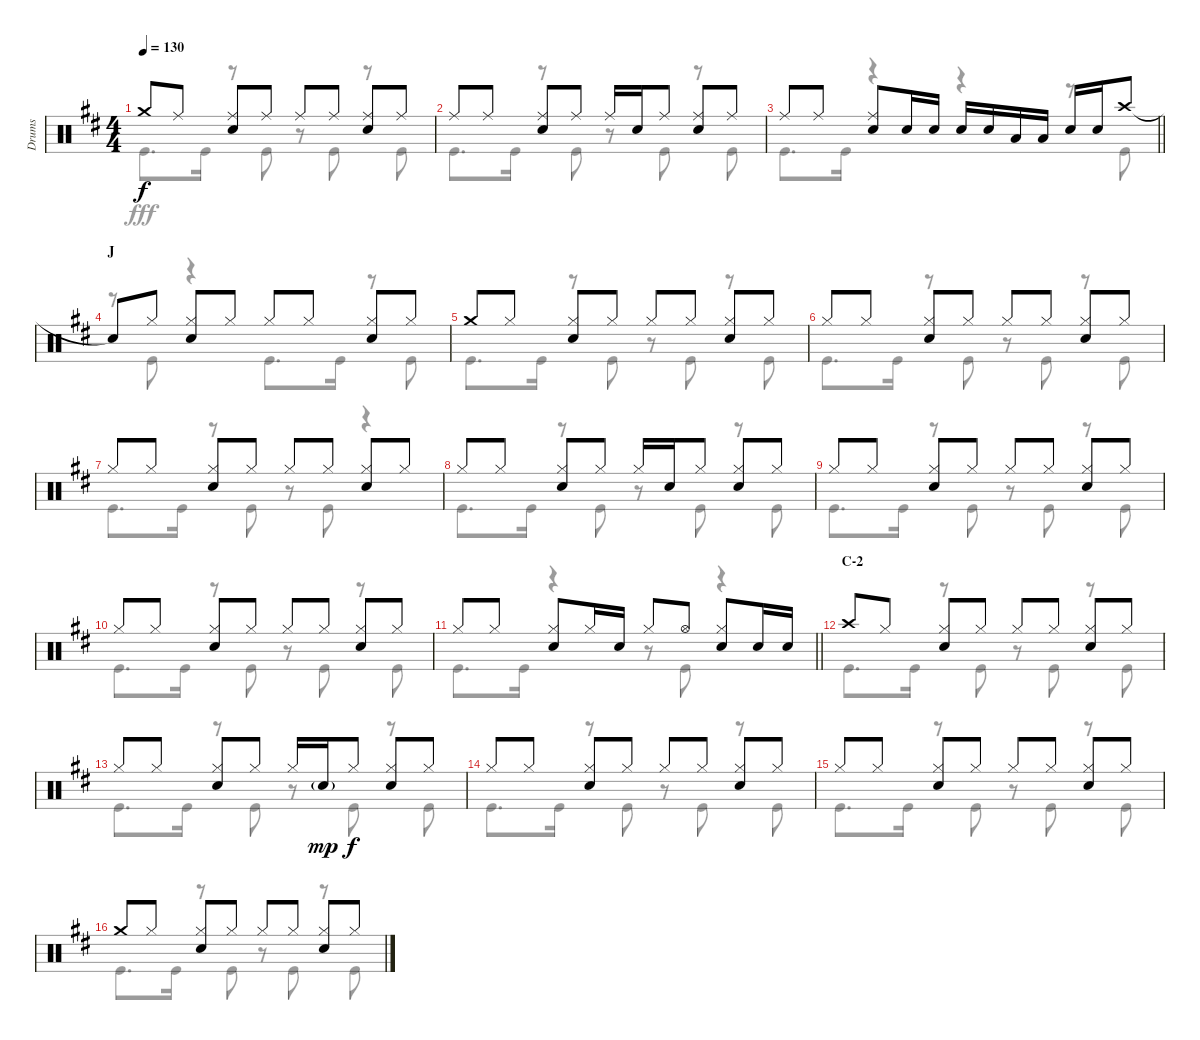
\track ("Drums" "Drums") {instrument percussion}
\staff {score}
\articulation defaults
\voice
\ts (4 4)
\tempo 130
\clef neutral
\ks d "Crash medium (hit)".8{dy f} "Ride (middle)".8
("Ride (middle)" "Snare (hit) 2").8 "Ride (middle)".8 "Ride (middle)".8 "Ride (middle)".8 ("Ride (middle)" "Snare (hit) 2").8 "Ride (middle)".8 |
"Ride (middle)".8 "Ride (middle)".8 ("Ride (middle)" "Snare (hit) 2").8 "Ride (middle)".8 "Ride (middle)".16 "Snare (hit) 2".16 "Ride (middle)".8 ("Ride (middle)" "Snare (hit) 2").8 "Ride (middle)".8 |
\barLineRight lightlight "Ride (middle)".8 "Ride (middle)".8
("Ride (middle)" "Snare (hit) 2").8 "Snare (hit) 2".16 "Snare (hit) 2".16 "Snare (hit) 2".16 "Snare (hit) 2".16 "Low Tom (hit)".16 "Low Tom (hit)".16 "Snare (hit) 2".16 "Snare (hit) 2".16 "Crash high (hit)".8 |
\section ("" "J")
"Snare (hit)"{t}.8 "Hi-Hat (closed)".8 ("Hi-Hat (closed)" "Snare (hit) 2").8 "Hi-Hat (closed)".8 "Hi-Hat (closed)".8 "Hi-Hat (closed)".8 ("Hi-Hat (closed)" "Snare (hit) 2").8 "Hi-Hat (closed)".8 |
"Crash medium (hit)".8 "Hi-Hat (closed)".8 ("Hi-Hat (closed)" "Snare (hit) 2").8 "Hi-Hat (closed)".8 "Hi-Hat (closed)".8 "Hi-Hat (closed)".8 ("Hi-Hat (closed)" "Snare (hit) 2").8 "Hi-Hat (closed)".8 |
"Hi-Hat (closed)".8 "Hi-Hat (closed)".8 ("Hi-Hat (closed)" "Snare (hit) 2").8 "Hi-Hat (closed)".8 "Hi-Hat (closed)".8 "Hi-Hat (closed)".8 ("Hi-Hat (closed)" "Snare (hit) 2").8 "Hi-Hat (closed)".8 |
"Hi-Hat (closed)".8 "Hi-Hat (closed)".8 ("Hi-Hat (closed)" "Snare (hit) 2").8 "Hi-Hat (closed)".8 "Hi-Hat (closed)".8 "Hi-Hat (closed)".8 ("Hi-Hat (closed)" "Snare (hit) 2").8 "Hi-Hat (closed)".8 |
"Hi-Hat (closed)".8 "Hi-Hat (closed)".8 ("Hi-Hat (closed)" "Snare (hit) 2").8 "Hi-Hat (closed)".8 "Hi-Hat (closed)".16 "Snare (hit) 2".16 "Hi-Hat (closed)".8 ("Hi-Hat (closed)" "Snare (hit) 2").8 "Hi-Hat (closed)".8 |
"Hi-Hat (closed)".8 "Hi-Hat (closed)".8 ("Hi-Hat (closed)" "Snare (hit) 2").8 "Hi-Hat (closed)".8 "Hi-Hat (closed)".8 "Hi-Hat (closed)".8 ("Hi-Hat (closed)" "Snare (hit) 2").8 "Hi-Hat (closed)".8 |
"Hi-Hat (closed)".8 "Hi-Hat (closed)".8 ("Hi-Hat (closed)" "Snare (hit) 2").8 "Hi-Hat (closed)".8 "Hi-Hat (closed)".8 "Hi-Hat (closed)".8 ("Hi-Hat (closed)" "Snare (hit) 2").8 "Hi-Hat (closed)".8 |
\barLineRight lightlight "Hi-Hat (closed)".8 "Hi-Hat (closed)".8
("Hi-Hat (closed)" "Snare (hit) 2").8 "Hi-Hat (closed)".16 "Snare (hit) 2".16 "Hi-Hat (closed)".8 "Hi-Hat (open)".8 ("Hi-Hat (closed)" "Snare (hit) 2").8 "Snare (hit) 2".16 "Snare (hit) 2".16 |
\section ("" "C-2")
"Crash high (hit)".8 "Hi-Hat (closed)".8 ("Hi-Hat (closed)" "Snare (hit) 2").8 "Hi-Hat (closed)".8 "Hi-Hat (closed)".8 "Hi-Hat (closed)".8 ("Hi-Hat (closed)" "Snare (hit) 2").8 "Hi-Hat (closed)".8 |
"Hi-Hat (closed)".8 "Hi-Hat (closed)".8 ("Hi-Hat (closed)" "Snare (hit) 2").8 "Hi-Hat (closed)".8 "Hi-Hat (closed)".16 "Snare (hit) 2"{g}.16{dy mp} "Hi-Hat (closed)".8{dy f} ("Hi-Hat (closed)" "Snare (hit) 2").8 "Hi-Hat (closed)".8 |
"Hi-Hat (closed)".8 "Hi-Hat (closed)".8 ("Hi-Hat (closed)" "Snare (hit) 2").8 "Hi-Hat (closed)".8 "Hi-Hat (closed)".8 "Hi-Hat (closed)".8 ("Hi-Hat (closed)" "Snare (hit) 2").8 "Hi-Hat (closed)".8 |
"Hi-Hat (closed)".8 "Hi-Hat (closed)".8 ("Hi-Hat (closed)" "Snare (hit) 2").8 "Hi-Hat (closed)".8 "Hi-Hat (closed)".8 "Hi-Hat (closed)".8 ("Hi-Hat (closed)" "Snare (hit) 2").8 "Hi-Hat (closed)".8 |
"Crash medium (hit)".8 "Hi-Hat (closed)".8 ("Hi-Hat (closed)" "Snare (hit) 2").8 "Hi-Hat (closed)".8 "Hi-Hat (closed)".8 "Hi-Hat (closed)".8 ("Hi-Hat (closed)" "Snare (hit) 2").8 "Hi-Hat (closed)".8
\voice
\clef neutral
\ottava regular
\simile none
\ks d "Kick (hit)".8{d dy fff} "Kick (hit)".16
r.8 "Kick (hit)".8 r.8 "Kick (hit)".8 r.8 "Kick (hit)".8 |
"Kick (hit)".8{d} "Kick (hit)".16 r.8 "Kick (hit)".8 r.8 "Kick (hit)".8 r.8 "Kick (hit)".8 |
\barLineRight lightlight "Kick (hit)".8{d} "Kick (hit)".16
r.4 r.4 r.8 "Kick (hit)".8 |
r.8 "Kick (hit)".8 r.4 "Kick (hit)".8{d} "Kick (hit)".16 r.8 "Kick (hit)".8 |
"Kick (hit)".8{d} "Kick (hit)".16 r.8 "Kick (hit)".8 r.8 "Kick (hit)".8 r.8 "Kick (hit)".8 |
"Kick (hit)".8{d} "Kick (hit)".16 r.8 "Kick (hit)".8 r.8 "Kick (hit)".8 r.8 "Kick (hit)".8 |
"Kick (hit)".8{d} "Kick (hit)".16 r.8 "Kick (hit)".8 r.8 "Kick (hit)".8 r.4 |
"Kick (hit)".8{d} "Kick (hit)".16 r.8 "Kick (hit)".8 r.8 "Kick (hit)".8 r.8 "Kick (hit)".8 |
"Kick (hit)".8{d} "Kick (hit)".16 r.8 "Kick (hit)".8 r.8 "Kick (hit)".8 r.8 "Kick (hit)".8 |
"Kick (hit)".8{d} "Kick (hit)".16 r.8 "Kick (hit)".8 r.8 "Kick (hit)".8 r.8 "Kick (hit)".8 |
\barLineRight lightlight "Kick (hit)".8{d} "Kick (hit)".16
r.4 r.8 "Kick (hit)".8 r.4 |
"Kick (hit)".8{d} "Kick (hit)".16 r.8 "Kick (hit)".8 r.8 "Kick (hit)".8 r.8 "Kick (hit)".8 |
"Kick (hit)".8{d} "Kick (hit)".16 r.8 "Kick (hit)".8 r.8 "Kick (hit)".8 r.8 "Kick (hit)".8 |
"Kick (hit)".8{d} "Kick (hit)".16 r.8 "Kick (hit)".8 r.8 "Kick (hit)".8 r.8 "Kick (hit)".8 |
"Kick (hit)".8{d} "Kick (hit)".16 r.8 "Kick (hit)".8 r.8 "Kick (hit)".8 r.8 "Kick (hit)".8 |
"Kick (hit)".8{d} "Kick (hit)".16 r.8 "Kick (hit)".8 r.8 "Kick (hit)".8 r.8 "Kick (hit)".8
